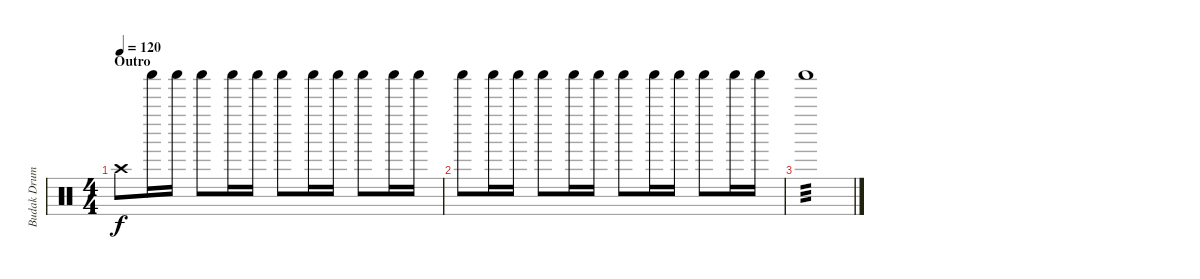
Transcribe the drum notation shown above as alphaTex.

\track ("Budak Drum" "Budak Drum") {instrument percussion}
\staff {score}
\articulation defaults
\ts (4 4)
\section ("" "Outro")
\tempo 120
\clef neutral
\ks c "Crash high (hit)".8{dy f} "Shaker (hit)".16{volume 8} "Shaker (hit)".16 "Shaker (hit)".8 "Shaker (hit)".16 "Shaker (hit)".16 "Shaker (hit)".8 "Shaker (hit)".16 "Shaker (hit)".16 "Shaker (hit)".8 "Shaker (hit)".16 "Shaker (hit)".16
|
"Shaker (hit)".8 "Shaker (hit)".16 "Shaker (hit)".16 "Shaker (hit)".8 "Shaker (hit)".16 "Shaker (hit)".16 "Shaker (hit)".8 "Shaker (hit)".16 "Shaker (hit)".16 "Shaker (hit)".8 "Shaker (hit)".16 "Shaker (hit)".16 |
"Shaker (hit)".1{tp 3 volume 0}
